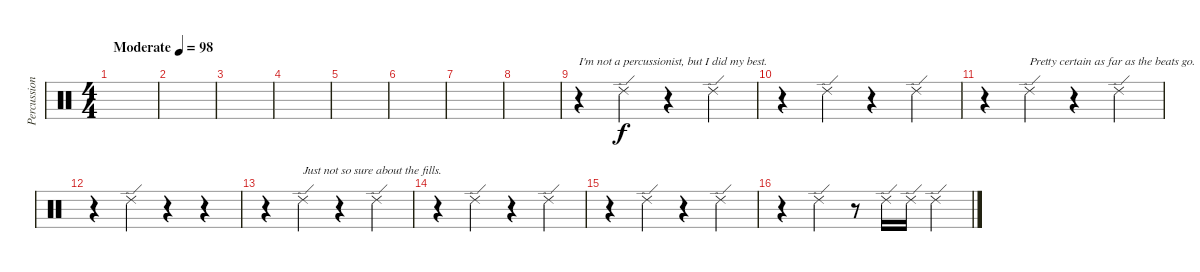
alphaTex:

\track ("Percussion" "Percussion") {instrument percussion}
\staff {score}
\articulation defaults
\ts (4 4)
\tempo (98 "Moderate")
\clef neutral
\ks c
|
|
|
|
|
|
|
|
r.4{txt "I'm not a percussionist, but I did my best."} "Ride (edge) 2".4 r.4 "Ride (edge) 2".4 |
r.4 "Ride (edge) 2".4 r.4 "Ride (edge) 2".4 |
r.4 "Ride (edge) 2".4{txt "Pretty certain as far as the beats go."} r.4 "Ride (edge) 2".4 |
r.4 "Ride (edge) 2".4 r.4 r.4 |
r.4 "Ride (edge) 2".4{txt "Just not so sure about the fills."} r.4 "Ride (edge) 2".4 |
r.4 "Ride (edge) 2".4 r.4 "Ride (edge) 2".4 |
r.4 "Ride (edge) 2".4 r.4 "Ride (edge) 2".4 |
r.4 "Ride (edge) 2".4 r.8 "Ride (edge) 2".16 "Ride (edge) 2".16 "Ride (edge) 2".4
